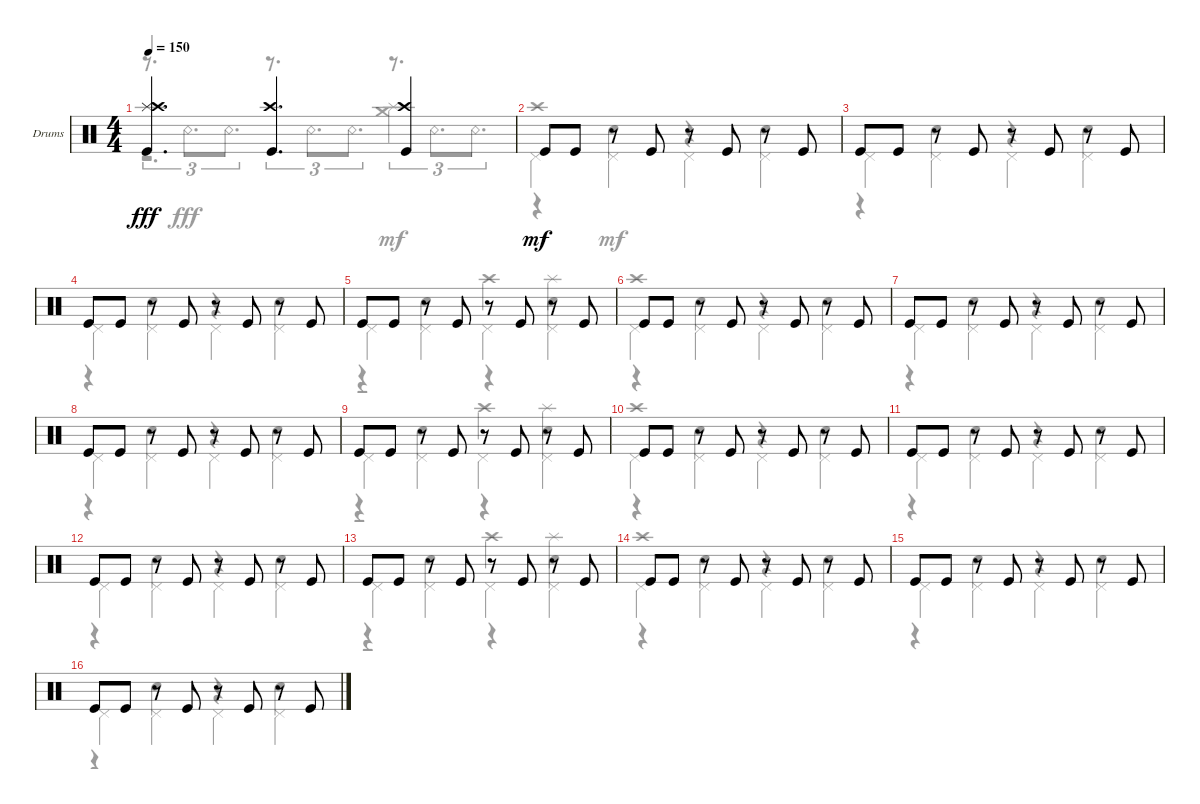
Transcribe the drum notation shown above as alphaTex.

\defaultSystemsLayout 4
\bracketExtendMode groupsimilarinstruments
\firstSystemTrackNameOrientation horizontal
\otherSystemsTrackNameOrientation horizontal
\track ("Drumkit" "Drums") {instrument percussion}
\staff {score}
\articulation defaults
\voice
\ts (4 4)
\tempo 150
\clef neutral
\ks c
("Kick (hit)" "Splash (hit)" "Crash high (hit)").4{d dy fff} ("Crash high (hit)" "Kick (hit)").4{d} ("Kick (hit)" "Crash high (hit)").4 |
"Kick (hit)".8{dy mf} "Kick (hit)".8 r.8 "Kick (hit)".8 r.8 "Kick (hit)".8 r.8 "Kick (hit)".8 |
"Kick (hit)".8 "Kick (hit)".8 r.8 "Kick (hit)".8 r.8 "Kick (hit)".8 r.8 "Kick (hit)".8 |
"Kick (hit)".8 "Kick (hit)".8 r.8 "Kick (hit)".8 r.8 "Kick (hit)".8 r.8 "Kick (hit)".8 |
"Kick (hit)".8 "Kick (hit)".8 r.8 "Kick (hit)".8 r.8 "Kick (hit)".8 r.8 "Kick (hit)".8 |
"Kick (hit)".8 "Kick (hit)".8 r.8 "Kick (hit)".8 r.8 "Kick (hit)".8 r.8 "Kick (hit)".8 |
"Kick (hit)".8 "Kick (hit)".8 r.8 "Kick (hit)".8 r.8 "Kick (hit)".8 r.8 "Kick (hit)".8 |
"Kick (hit)".8 "Kick (hit)".8 r.8 "Kick (hit)".8 r.8 "Kick (hit)".8 r.8 "Kick (hit)".8 |
"Kick (hit)".8 "Kick (hit)".8 r.8 "Kick (hit)".8 r.8 "Kick (hit)".8 r.8 "Kick (hit)".8 |
"Kick (hit)".8 "Kick (hit)".8 r.8 "Kick (hit)".8 r.8 "Kick (hit)".8 r.8 "Kick (hit)".8 |
"Kick (hit)".8 "Kick (hit)".8 r.8 "Kick (hit)".8 r.8 "Kick (hit)".8 r.8 "Kick (hit)".8 |
"Kick (hit)".8 "Kick (hit)".8 r.8 "Kick (hit)".8 r.8 "Kick (hit)".8 r.8 "Kick (hit)".8 |
"Kick (hit)".8 "Kick (hit)".8 r.8 "Kick (hit)".8 r.8 "Kick (hit)".8 r.8 "Kick (hit)".8 |
"Kick (hit)".8 "Kick (hit)".8 r.8 "Kick (hit)".8 r.8 "Kick (hit)".8 r.8 "Kick (hit)".8 |
"Kick (hit)".8 "Kick (hit)".8 r.8 "Kick (hit)".8 r.8 "Kick (hit)".8 r.8 "Kick (hit)".8 |
"Kick (hit)".8 "Kick (hit)".8 r.8 "Kick (hit)".8 r.8 "Kick (hit)".8 r.8 "Kick (hit)".8
\voice
\clef neutral
\ottava regular
\simile none
\ks c
r.8{d tu (3 2) dy fff} "Snare (rim shot)".8{d tu (3 2)} "Snare (rim shot)".8{d tu (3 2)} r.8{d tu (3 2)} "Snare (rim shot)".8{d tu (3 2)} "Snare (rim shot)".8{d tu (3 2)} r.8{d tu (3 2)} "Snare (rim shot)".8{d tu (3 2)} "Snare (rim shot)".8{d tu (3 2)} |
"Pedal Hi-Hat (hit)".4{dy mf} "Pedal Hi-Hat (hit)".4 "Pedal Hi-Hat (hit)".4 "Pedal Hi-Hat (hit)".4 |
"Pedal Hi-Hat (hit)".4 "Pedal Hi-Hat (hit)".4 "Pedal Hi-Hat (hit)".4 "Pedal Hi-Hat (hit)".4 |
"Pedal Hi-Hat (hit)".4 "Pedal Hi-Hat (hit)".4 "Pedal Hi-Hat (hit)".4 "Pedal Hi-Hat (hit)".4 |
"Pedal Hi-Hat (hit)".4 "Pedal Hi-Hat (hit)".4 "Pedal Hi-Hat (hit)".4 "Pedal Hi-Hat (hit)".4 |
"Pedal Hi-Hat (hit)".4 "Pedal Hi-Hat (hit)".4 "Pedal Hi-Hat (hit)".4 "Pedal Hi-Hat (hit)".4 |
"Pedal Hi-Hat (hit)".4 "Pedal Hi-Hat (hit)".4 "Pedal Hi-Hat (hit)".4 "Pedal Hi-Hat (hit)".4 |
"Pedal Hi-Hat (hit)".4 "Pedal Hi-Hat (hit)".4 "Pedal Hi-Hat (hit)".4 "Pedal Hi-Hat (hit)".4 |
"Pedal Hi-Hat (hit)".4 "Pedal Hi-Hat (hit)".4 "Pedal Hi-Hat (hit)".4 "Pedal Hi-Hat (hit)".4 |
"Pedal Hi-Hat (hit)".4 "Pedal Hi-Hat (hit)".4 "Pedal Hi-Hat (hit)".4 "Pedal Hi-Hat (hit)".4 |
"Pedal Hi-Hat (hit)".4 "Pedal Hi-Hat (hit)".4 "Pedal Hi-Hat (hit)".4 "Pedal Hi-Hat (hit)".4 |
"Pedal Hi-Hat (hit)".4 "Pedal Hi-Hat (hit)".4 "Pedal Hi-Hat (hit)".4 "Pedal Hi-Hat (hit)".4 |
"Pedal Hi-Hat (hit)".4 "Pedal Hi-Hat (hit)".4 "Pedal Hi-Hat (hit)".4 "Pedal Hi-Hat (hit)".4 |
"Pedal Hi-Hat (hit)".4 "Pedal Hi-Hat (hit)".4 "Pedal Hi-Hat (hit)".4 "Pedal Hi-Hat (hit)".4 |
"Pedal Hi-Hat (hit)".4 "Pedal Hi-Hat (hit)".4 "Pedal Hi-Hat (hit)".4 "Pedal Hi-Hat (hit)".4 |
"Pedal Hi-Hat (hit)".4 "Pedal Hi-Hat (hit)".4 "Pedal Hi-Hat (hit)".4 "Pedal Hi-Hat (hit)".4
\voice
\clef neutral
\ottava regular
\simile none
\ks c
|
r.4 "Snare (hit) 2".4{dy mf} r.4 "Snare (hit) 2".4 |
r.4 "Snare (hit) 2".4 r.4 "Snare (hit) 2".4 |
r.4 "Snare (hit) 2".4 r.4 "Snare (hit) 2".4 |
r.4 "Snare (hit) 2".4 r.4 "Snare (hit) 2".4 |
r.4 "Snare (hit) 2".4 r.4 "Snare (hit) 2".4 |
r.4 "Snare (hit) 2".4 r.4 "Snare (hit) 2".4 |
r.4 "Snare (hit) 2".4 r.4 "Snare (hit) 2".4 |
r.4 "Snare (hit) 2".4 r.4 "Snare (hit) 2".4 |
r.4 "Snare (hit) 2".4 r.4 "Snare (hit) 2".4 |
r.4 "Snare (hit) 2".4 r.4 "Snare (hit) 2".4 |
r.4 "Snare (hit) 2".4 r.4 "Snare (hit) 2".4 |
r.4 "Snare (hit) 2".4 r.4 "Snare (hit) 2".4 |
r.4 "Snare (hit) 2".4 r.4 "Snare (hit) 2".4 |
r.4 "Snare (hit) 2".4 r.4 "Snare (hit) 2".4 |
r.4 "Snare (hit) 2".4 r.4 "Snare (hit) 2".4
\voice
\clef neutral
\ottava regular
\simile none
\ks c
r.2{d dy mf} ("Crash medium (hit)" "Splash (hit)").4 |
"Crash high (hit)".1 |
|
|
r.2 "Crash high (hit)".4 "Splash (hit)".4 |
"Crash high (hit)".1 |
|
|
r.2 "Crash high (hit)".4 "Splash (hit)".4 |
"Crash high (hit)".1 |
|
|
r.2 "Crash high (hit)".4 "Splash (hit)".4 |
"Crash high (hit)".1 |
|
